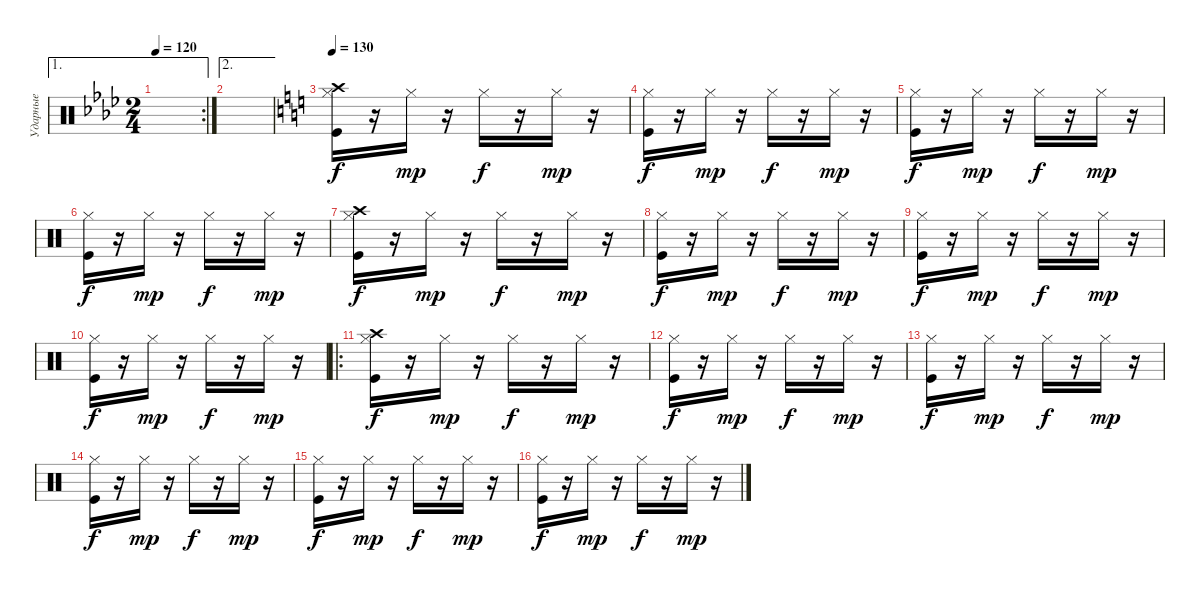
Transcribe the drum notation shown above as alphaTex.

\track ("Ударные" "Ударные") {instrument percussion}
\staff {score}
\articulation defaults
\ae 1
\rc 2
\ts (2 4)
\tempo 120
\clef neutral
\ks ab
|
\ae 2
|
\tempo 130
\ks c
("Kick (hit)" "Hi-Hat (closed)" "Crash high (hit)").16 r.16 "Hi-Hat (closed)".16{dy mp} r.16 "Hi-Hat (closed)".16{dy f} r.16 "Hi-Hat (closed)".16{dy mp} r.16 |
("Kick (hit)" "Hi-Hat (closed)").16{dy f} r.16 "Hi-Hat (closed)".16{dy mp} r.16 "Hi-Hat (closed)".16{dy f} r.16 "Hi-Hat (closed)".16{dy mp} r.16 |
("Kick (hit)" "Hi-Hat (closed)").16{dy f} r.16 "Hi-Hat (closed)".16{dy mp} r.16 "Hi-Hat (closed)".16{dy f} r.16 "Hi-Hat (closed)".16{dy mp} r.16 |
("Kick (hit)" "Hi-Hat (closed)").16{dy f} r.16 "Hi-Hat (closed)".16{dy mp} r.16 "Hi-Hat (closed)".16{dy f} r.16 "Hi-Hat (closed)".16{dy mp} r.16 |
("Kick (hit)" "Hi-Hat (closed)" "Crash high (hit)").16{dy f} r.16 "Hi-Hat (closed)".16{dy mp} r.16 "Hi-Hat (closed)".16{dy f} r.16 "Hi-Hat (closed)".16{dy mp} r.16 |
("Kick (hit)" "Hi-Hat (closed)").16{dy f} r.16 "Hi-Hat (closed)".16{dy mp} r.16 "Hi-Hat (closed)".16{dy f} r.16 "Hi-Hat (closed)".16{dy mp} r.16 |
("Kick (hit)" "Hi-Hat (closed)").16{dy f} r.16 "Hi-Hat (closed)".16{dy mp} r.16 "Hi-Hat (closed)".16{dy f} r.16 "Hi-Hat (closed)".16{dy mp} r.16 |
("Kick (hit)" "Hi-Hat (closed)").16{dy f} r.16 "Hi-Hat (closed)".16{dy mp} r.16 "Hi-Hat (closed)".16{dy f} r.16 "Hi-Hat (closed)".16{dy mp} r.16 |
\ro
("Kick (hit)" "Hi-Hat (closed)" "Crash high (hit)").16{dy f} r.16 "Hi-Hat (closed)".16{dy mp} r.16 "Hi-Hat (closed)".16{dy f} r.16 "Hi-Hat (closed)".16{dy mp} r.16 |
("Kick (hit)" "Hi-Hat (closed)").16{dy f} r.16 "Hi-Hat (closed)".16{dy mp} r.16 "Hi-Hat (closed)".16{dy f} r.16 "Hi-Hat (closed)".16{dy mp} r.16 |
("Kick (hit)" "Hi-Hat (closed)").16{dy f} r.16 "Hi-Hat (closed)".16{dy mp} r.16 "Hi-Hat (closed)".16{dy f} r.16 "Hi-Hat (closed)".16{dy mp} r.16 |
("Kick (hit)" "Hi-Hat (closed)").16{dy f} r.16 "Hi-Hat (closed)".16{dy mp} r.16 "Hi-Hat (closed)".16{dy f} r.16 "Hi-Hat (closed)".16{dy mp} r.16 |
("Kick (hit)" "Hi-Hat (closed)").16{dy f} r.16 "Hi-Hat (closed)".16{dy mp} r.16 "Hi-Hat (closed)".16{dy f} r.16 "Hi-Hat (closed)".16{dy mp} r.16 |
("Kick (hit)" "Hi-Hat (closed)").16{dy f} r.16 "Hi-Hat (closed)".16{dy mp} r.16 "Hi-Hat (closed)".16{dy f} r.16 "Hi-Hat (closed)".16{dy mp} r.16
